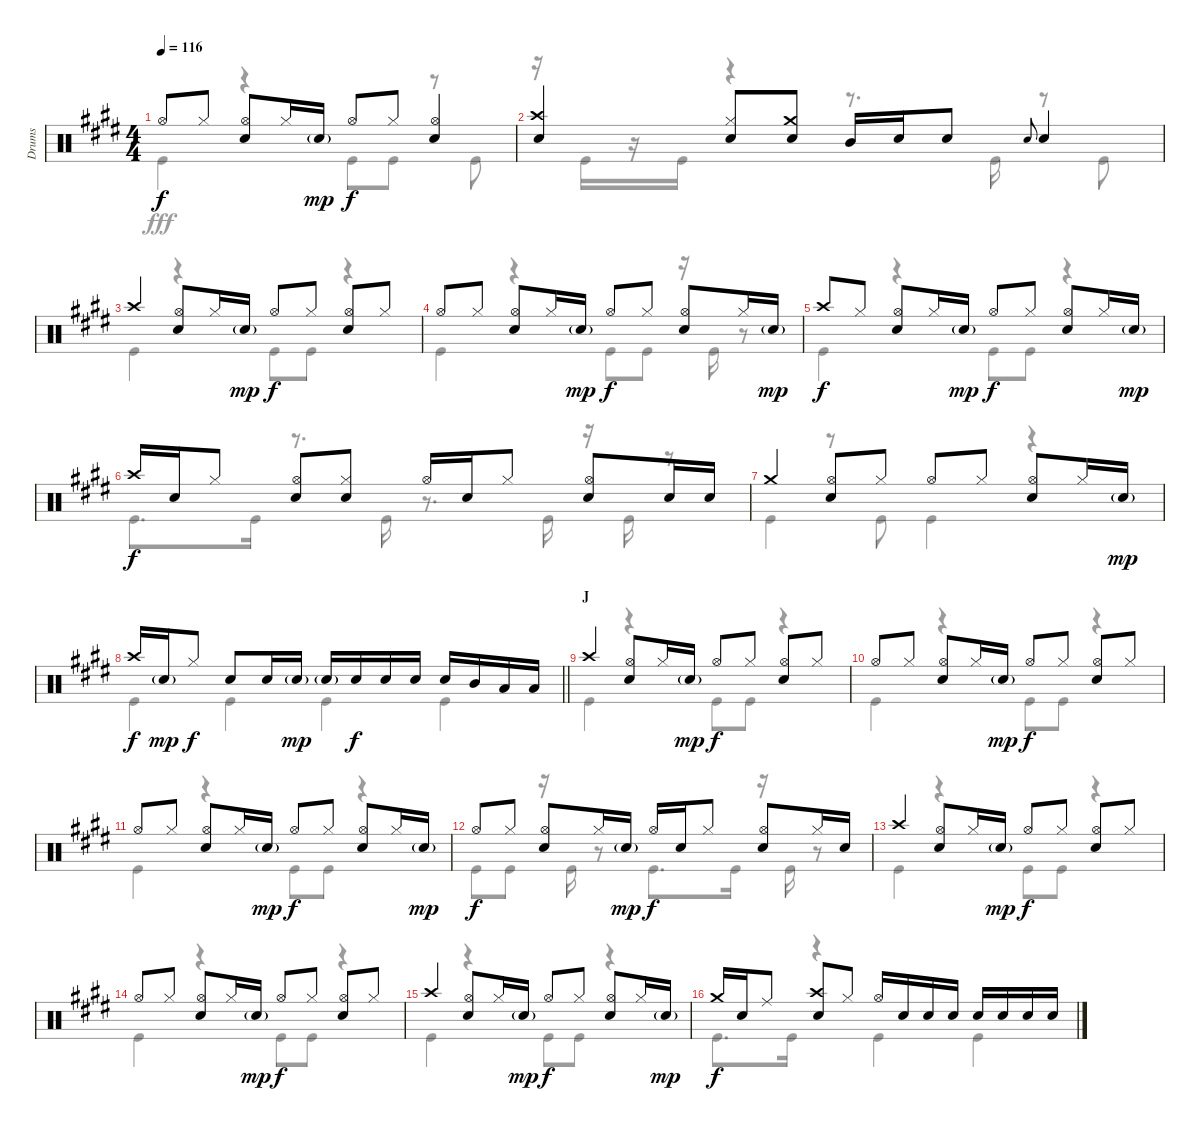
\track ("Drums" "Drums") {instrument percussion}
\staff {score}
\articulation defaults
\voice
\ts (4 4)
\tempo 116
\clef neutral
\ks e "Hi-Hat (open)".8{dy f} "Hi-Hat (closed)".8
("Hi-Hat (open)" "Snare (hit) 2").8 "Hi-Hat (closed)".16 "Snare (hit) 2"{g}.16{dy mp} "Hi-Hat (open)".8{dy f} "Hi-Hat (closed)".8 ("Hi-Hat (open)" "Snare (hit) 2").4 |
("Crash high (hit)" "Snare (hit) 2").4 ("Hi-Hat (closed)" "Snare (hit) 2").8 ("Crash medium (hit)" "Snare (hit) 2").8 "Mid Tom (hit)".16 "Snare (hit) 2".16 "Snare (hit) 2".8 "Snare (hit) 2".8{gr onbeat} "Snare (hit) 2".4 |
"Crash high (hit)".4 ("Hi-Hat (open)" "Snare (hit) 2").8 "Hi-Hat (closed)".16 "Snare (hit) 2"{g}.16{dy mp} "Hi-Hat (open)".8{dy f} "Hi-Hat (closed)".8 ("Snare (hit) 2" "Hi-Hat (open)").8 "Hi-Hat (closed)".8 |
"Hi-Hat (open)".8 "Hi-Hat (closed)".8 ("Hi-Hat (open)" "Snare (hit) 2").8 "Hi-Hat (closed)".16 "Snare (hit) 2"{g}.16{dy mp} "Hi-Hat (open)".8{dy f} "Hi-Hat (closed)".8 ("Hi-Hat (open)" "Snare (hit) 2").8 "Hi-Hat (closed)".16 "Snare (hit) 2"{g}.16{dy mp} |
"Crash high (hit)".8{dy f} "Hi-Hat (closed)".8 ("Hi-Hat (open)" "Snare (hit) 2").8 "Hi-Hat (closed)".16 "Snare (hit) 2"{g}.16{dy mp} "Hi-Hat (open)".8{dy f} "Hi-Hat (closed)".8 ("Hi-Hat (open)" "Snare (hit) 2").8 "Hi-Hat (closed)".16 "Snare (hit) 2"{g}.16{dy mp} |
"Crash high (hit)".16{dy f} "Snare (hit) 2".16 "Hi-Hat (closed)".8 ("Hi-Hat (open)" "Snare (hit) 2").8 ("Hi-Hat (closed)" "Snare (hit) 2").8 "Hi-Hat (open)".16 "Snare (hit) 2".16 "Hi-Hat (closed)".8 ("Hi-Hat (open)" "Snare (hit) 2").8 "Snare (hit) 2".16 "Snare (hit) 2".16 |
"Crash medium (hit)".4 ("Hi-Hat (open)" "Snare (hit) 2").8 "Hi-Hat (closed)".8 "Hi-Hat (open)".8 "Hi-Hat (closed)".8 ("Hi-Hat (open)" "Snare (hit) 2").8 "Hi-Hat (closed)".16 "Snare (hit) 2"{g}.16{dy mp} |
\barLineRight lightlight "Crash high (hit)".16{dy f} "Snare (hit) 2"{g}.16{dy mp} "Hi-Hat (closed)".8{dy f} "Snare (hit) 2".8 "Snare (hit) 2".16 "Snare (hit) 2"{g}.16{dy mp} "Snare (hit) 2"{g}.16 "Snare (hit) 2".16{dy f} "Snare (hit) 2".16 "Snare (hit) 2".16 "Snare (hit) 2".16 "Mid Tom (hit)".16 "Low Tom (hit)".16 "Low Tom (hit)".16
|
\section ("" "J")
"Crash high (hit)".4 ("Hi-Hat (open)" "Snare (hit) 2").8 "Hi-Hat (closed)".16 "Snare (hit) 2"{g}.16{dy mp} "Hi-Hat (open)".8{dy f} "Hi-Hat (closed)".8 ("Snare (hit) 2" "Hi-Hat (open)").8 "Hi-Hat (closed)".8 |
"Hi-Hat (open)".8 "Hi-Hat (closed)".8 ("Hi-Hat (open)" "Snare (hit) 2").8 "Hi-Hat (closed)".16 "Snare (hit) 2"{g}.16{dy mp} "Hi-Hat (open)".8{dy f} "Hi-Hat (closed)".8 ("Hi-Hat (open)" "Snare (hit) 2").8 "Hi-Hat (closed)".8 |
"Hi-Hat (open)".8 "Hi-Hat (closed)".8 ("Hi-Hat (open)" "Snare (hit) 2").8 "Hi-Hat (closed)".16 "Snare (hit) 2"{g}.16{dy mp} "Hi-Hat (open)".8{dy f} "Hi-Hat (closed)".8 ("Hi-Hat (open)" "Snare (hit) 2").8 "Hi-Hat (closed)".16 "Snare (hit) 2"{g}.16{dy mp} |
"Hi-Hat (open)".8{dy f} "Hi-Hat (closed)".8 ("Hi-Hat (open)" "Snare (hit) 2").8 "Hi-Hat (closed)".16 "Snare (hit) 2"{g}.16{dy mp} "Hi-Hat (open)".16{dy f} "Snare (hit) 2".16 "Hi-Hat (closed)".8 ("Hi-Hat (open)" "Snare (hit) 2").8 "Hi-Hat (closed)".16 "Snare (hit) 2".16 |
"Crash high (hit)".4 ("Hi-Hat (open)" "Snare (hit) 2").8 "Hi-Hat (closed)".16 "Snare (hit) 2"{g}.16{dy mp} "Hi-Hat (open)".8{dy f} "Hi-Hat (closed)".8 ("Snare (hit) 2" "Hi-Hat (open)").8 "Hi-Hat (closed)".8 |
"Hi-Hat (open)".8 "Hi-Hat (closed)".8 ("Hi-Hat (open)" "Snare (hit) 2").8 "Hi-Hat (closed)".16 "Snare (hit) 2"{g}.16{dy mp} "Hi-Hat (open)".8{dy f} "Hi-Hat (closed)".8 ("Hi-Hat (open)" "Snare (hit) 2").8 "Hi-Hat (closed)".8 |
"Crash high (hit)".4 ("Hi-Hat (open)" "Snare (hit) 2").8 "Hi-Hat (closed)".16 "Snare (hit) 2"{g}.16{dy mp} "Hi-Hat (open)".8{dy f} "Hi-Hat (closed)".8 ("Hi-Hat (open)" "Snare (hit) 2").8 "Hi-Hat (closed)".16 "Snare (hit) 2"{g}.16{dy mp} |
"Crash medium (hit)".16{dy f} "Snare (hit) 2".16 "Ride (middle)".8 ("Crash high (hit)" "Snare (hit) 2").8 "Hi-Hat (closed)".8 "Hi-Hat (open)".16 "Snare (hit) 2".16 "Snare (hit) 2".16 "Snare (hit) 2".16 "Snare (hit) 2".16 "Snare (hit) 2".16 "Snare (hit) 2".16 "Snare (hit) 2".16
\voice
\clef neutral
\ottava regular
\simile none
\ks e "Kick (hit)".4{dy fff}
r.4 "Kick (hit)".8 "Kick (hit)".8 r.8 "Kick (hit)".8 |
r.16 "Kick (hit)".16 r.16 "Kick (hit)".16 r.4 r.8{d} "Kick (hit)".16 r.8 "Kick (hit)".8 |
"Kick (hit)".4 r.4 "Kick (hit)".8 "Kick (hit)".8 r.4 |
"Kick (hit)".4 r.4 "Kick (hit)".8 "Kick (hit)".8 r.16 "Kick (hit)".16 r.8 |
"Kick (hit)".4 r.4 "Kick (hit)".8 "Kick (hit)".8 r.4 |
"Kick (hit)".8{d} "Kick (hit)".16 r.8{d} "Kick (hit)".16 r.8{d} "Kick (hit)".16 r.16 "Kick (hit)".16 r.8 |
"Kick (hit)".4 r.8 "Kick (hit)".8 "Kick (hit)".4 r.4 |
\barLineRight lightlight "Kick (hit)".4 "Kick (hit)".4 "Kick (hit)".4 "Kick (hit)".4
|
"Kick (hit)".4 r.4 "Kick (hit)".8 "Kick (hit)".8 r.4 |
"Kick (hit)".4 r.4 "Kick (hit)".8 "Kick (hit)".8 r.4 |
"Kick (hit)".4 r.4 "Kick (hit)".8 "Kick (hit)".8 r.4 |
"Kick (hit)".8 "Kick (hit)".8 r.16 "Kick (hit)".16 r.8 "Kick (hit)".8{d} "Kick (hit)".16 r.16 "Kick (hit)".16 r.8 |
"Kick (hit)".4 r.4 "Kick (hit)".8 "Kick (hit)".8 r.4 |
"Kick (hit)".4 r.4 "Kick (hit)".8 "Kick (hit)".8 r.4 |
"Kick (hit)".4 r.4 "Kick (hit)".8 "Kick (hit)".8 r.4 |
"Kick (hit)".8{d} "Kick (hit)".16 r.4 "Kick (hit)".4 "Kick (hit)".4
